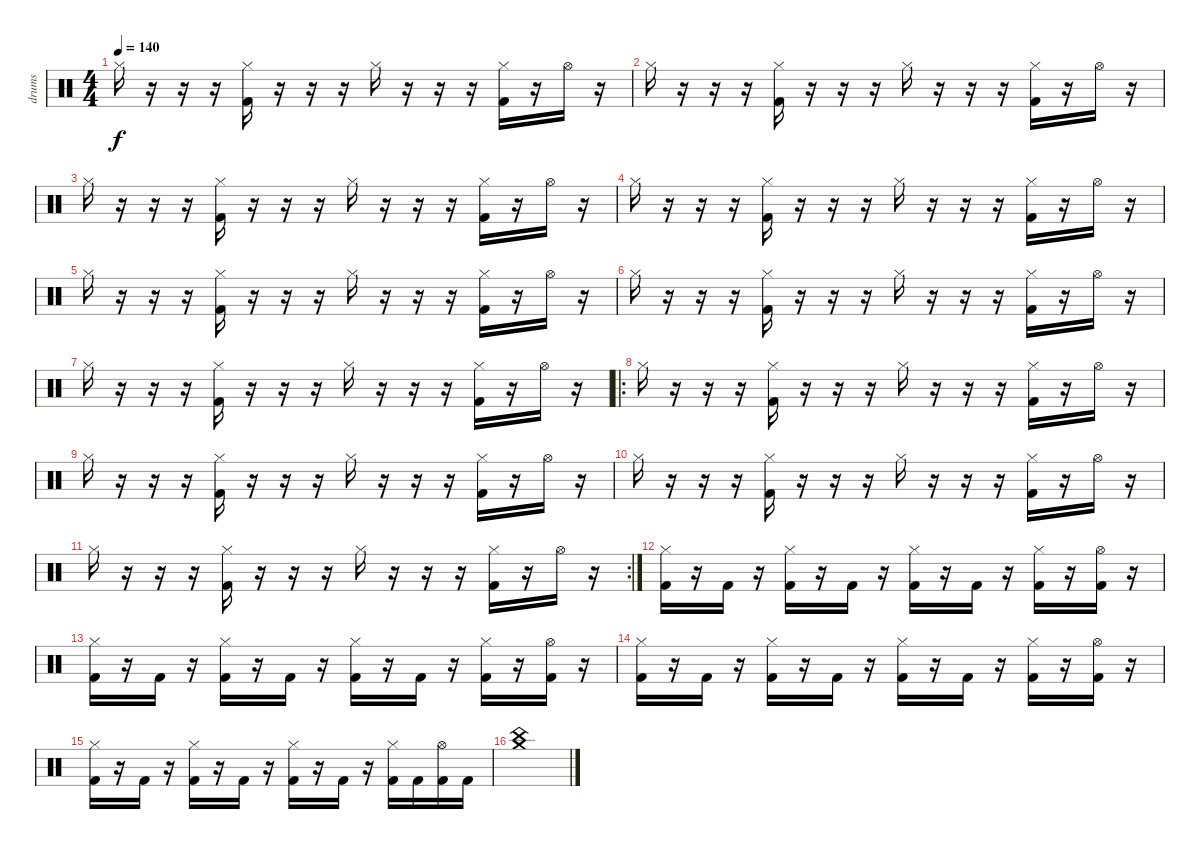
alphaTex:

\track ("drums" "drums") {instrument percussion}
\staff {score}
\articulation defaults
\ts (4 4)
\tempo 140
\clef neutral
\ks c "Hi-Hat (closed)".16{dy f}
r.16 r.16 r.16 ("Hi-Hat (closed)" "Kick (hit) 2").16 r.16 r.16 r.16 "Hi-Hat (closed)".16 r.16 r.16 r.16 ("Hi-Hat (closed)" "Kick (hit) 2").16 r.16 "Hi-Hat (open)".16 r.16 |
"Hi-Hat (closed)".16 r.16 r.16 r.16 ("Hi-Hat (closed)" "Kick (hit) 2").16 r.16 r.16 r.16 "Hi-Hat (closed)".16 r.16 r.16 r.16 ("Hi-Hat (closed)" "Kick (hit) 2").16 r.16 "Hi-Hat (open)".16 r.16 |
"Hi-Hat (closed)".16 r.16 r.16 r.16 ("Hi-Hat (closed)" "Kick (hit) 2").16 r.16 r.16 r.16 "Hi-Hat (closed)".16 r.16 r.16 r.16 ("Hi-Hat (closed)" "Kick (hit) 2").16 r.16 "Hi-Hat (open)".16 r.16 |
"Hi-Hat (closed)".16 r.16 r.16 r.16 ("Hi-Hat (closed)" "Kick (hit) 2").16 r.16 r.16 r.16 "Hi-Hat (closed)".16 r.16 r.16 r.16 ("Hi-Hat (closed)" "Kick (hit) 2").16 r.16 "Hi-Hat (open)".16 r.16 |
"Hi-Hat (closed)".16 r.16 r.16 r.16 ("Hi-Hat (closed)" "Kick (hit) 2").16 r.16 r.16 r.16 "Hi-Hat (closed)".16 r.16 r.16 r.16 ("Hi-Hat (closed)" "Kick (hit) 2").16 r.16 "Hi-Hat (open)".16 r.16 |
"Hi-Hat (closed)".16 r.16 r.16 r.16 ("Hi-Hat (closed)" "Kick (hit) 2").16 r.16 r.16 r.16 "Hi-Hat (closed)".16 r.16 r.16 r.16 ("Hi-Hat (closed)" "Kick (hit) 2").16 r.16 "Hi-Hat (open)".16 r.16 |
"Hi-Hat (closed)".16 r.16 r.16 r.16 ("Hi-Hat (closed)" "Kick (hit) 2").16 r.16 r.16 r.16 "Hi-Hat (closed)".16 r.16 r.16 r.16 ("Hi-Hat (closed)" "Kick (hit) 2").16 r.16 "Hi-Hat (open)".16 r.16 |
\ro "Hi-Hat (closed)".16
r.16 r.16 r.16 ("Hi-Hat (closed)" "Kick (hit) 2").16 r.16 r.16 r.16 "Hi-Hat (closed)".16 r.16 r.16 r.16 ("Hi-Hat (closed)" "Kick (hit) 2").16 r.16 "Hi-Hat (open)".16 r.16 |
"Hi-Hat (closed)".16 r.16 r.16 r.16 ("Hi-Hat (closed)" "Kick (hit) 2").16 r.16 r.16 r.16 "Hi-Hat (closed)".16 r.16 r.16 r.16 ("Hi-Hat (closed)" "Kick (hit) 2").16 r.16 "Hi-Hat (open)".16 r.16 |
"Hi-Hat (closed)".16 r.16 r.16 r.16 ("Hi-Hat (closed)" "Kick (hit) 2").16 r.16 r.16 r.16 "Hi-Hat (closed)".16 r.16 r.16 r.16 ("Hi-Hat (closed)" "Kick (hit) 2").16 r.16 "Hi-Hat (open)".16 r.16 |
\rc 2 "Hi-Hat (closed)".16
r.16 r.16 r.16 ("Hi-Hat (closed)" "Kick (hit) 2").16 r.16 r.16 r.16 "Hi-Hat (closed)".16 r.16 r.16 r.16 ("Hi-Hat (closed)" "Kick (hit) 2").16 r.16 "Hi-Hat (open)".16 r.16 |
("Hi-Hat (closed)" "Kick (hit) 2").16 r.16 "Kick (hit) 2".16 r.16 ("Hi-Hat (closed)" "Kick (hit) 2").16 r.16 "Kick (hit) 2".16 r.16 ("Hi-Hat (closed)" "Kick (hit) 2").16 r.16 "Kick (hit) 2".16 r.16 ("Hi-Hat (closed)" "Kick (hit) 2").16 r.16 ("Hi-Hat (open)" "Kick (hit) 2").16 r.16 |
("Hi-Hat (closed)" "Kick (hit) 2").16 r.16 "Kick (hit) 2".16 r.16 ("Hi-Hat (closed)" "Kick (hit) 2").16 r.16 "Kick (hit) 2".16 r.16 ("Hi-Hat (closed)" "Kick (hit) 2").16 r.16 "Kick (hit) 2".16 r.16 ("Hi-Hat (closed)" "Kick (hit) 2").16 r.16 ("Hi-Hat (open)" "Kick (hit) 2").16 r.16 |
("Hi-Hat (closed)" "Kick (hit) 2").16 r.16 "Kick (hit) 2".16 r.16 ("Hi-Hat (closed)" "Kick (hit) 2").16 r.16 "Kick (hit) 2".16 r.16 ("Hi-Hat (closed)" "Kick (hit) 2").16 r.16 "Kick (hit) 2".16 r.16 ("Hi-Hat (closed)" "Kick (hit) 2").16 r.16 ("Hi-Hat (open)" "Kick (hit) 2").16 r.16 |
("Hi-Hat (closed)" "Kick (hit) 2").16 r.16 "Kick (hit) 2".16 r.16 ("Hi-Hat (closed)" "Kick (hit) 2").16 r.16 "Kick (hit) 2".16 r.16 ("Hi-Hat (closed)" "Kick (hit) 2").16 r.16 "Kick (hit) 2".16 r.16 ("Hi-Hat (closed)" "Kick (hit) 2").16 "Kick (hit) 2".16 ("Hi-Hat (open)" "Kick (hit) 2").16 "Kick (hit) 2".16 |
("Crash medium (hit)" "China (hit)").1
